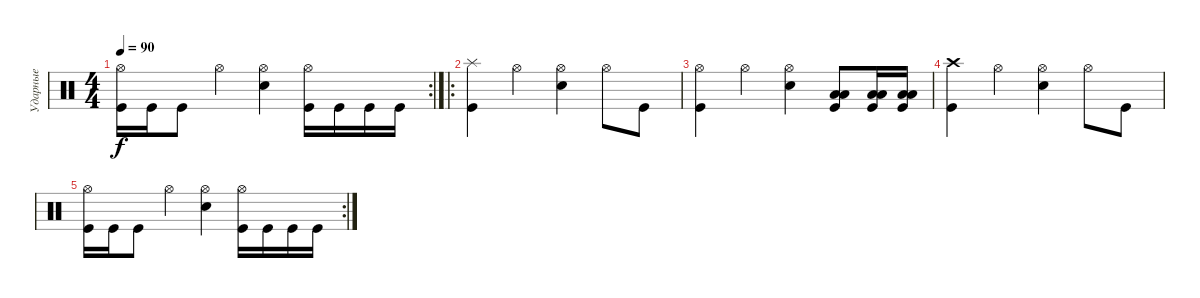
\track ("Ударные" "Ударные") {instrument percussion}
\staff {score}
\articulation defaults
\rc 2
\ts (4 4)
\tempo 90
\clef neutral
\ks c
("Hi-Hat (open)" "Kick (hit)").16{dy f} "Kick (hit)".16 "Kick (hit)".8 "Hi-Hat (open)".4 ("Hi-Hat (open)" "Snare (hit) 2").4 ("Hi-Hat (open)" "Kick (hit)").16 "Kick (hit)".16 "Kick (hit)".16 "Kick (hit)".16 |
\ro
("Splash (hit)" "Kick (hit)").4 "Hi-Hat (open)".4 ("Hi-Hat (open)" "Snare (hit) 2").4 "Hi-Hat (open)".8 "Kick (hit)".8 |
("Hi-Hat (open)" "Kick (hit)").4 "Hi-Hat (open)".4 ("Hi-Hat (open)" "Snare (hit) 2").4 ("Low Tom (hit)" "Low Floor Tom (hit)" "Kick (hit)").8 ("Low Tom (hit)" "Low Floor Tom (hit)" "Kick (hit)").16 ("Low Tom (hit)" "Low Floor Tom (hit)" "Kick (hit)").16 |
("Crash high (hit)" "Kick (hit)").4 "Hi-Hat (open)".4 ("Hi-Hat (open)" "Snare (hit) 2").4 "Hi-Hat (open)".8 "Kick (hit)".8 |
\rc 2
("Hi-Hat (open)" "Kick (hit)").16 "Kick (hit)".16 "Kick (hit)".8 "Hi-Hat (open)".4 ("Hi-Hat (open)" "Snare (hit) 2").4 ("Hi-Hat (open)" "Kick (hit)").16 "Kick (hit)".16 "Kick (hit)".16 "Kick (hit)".16
